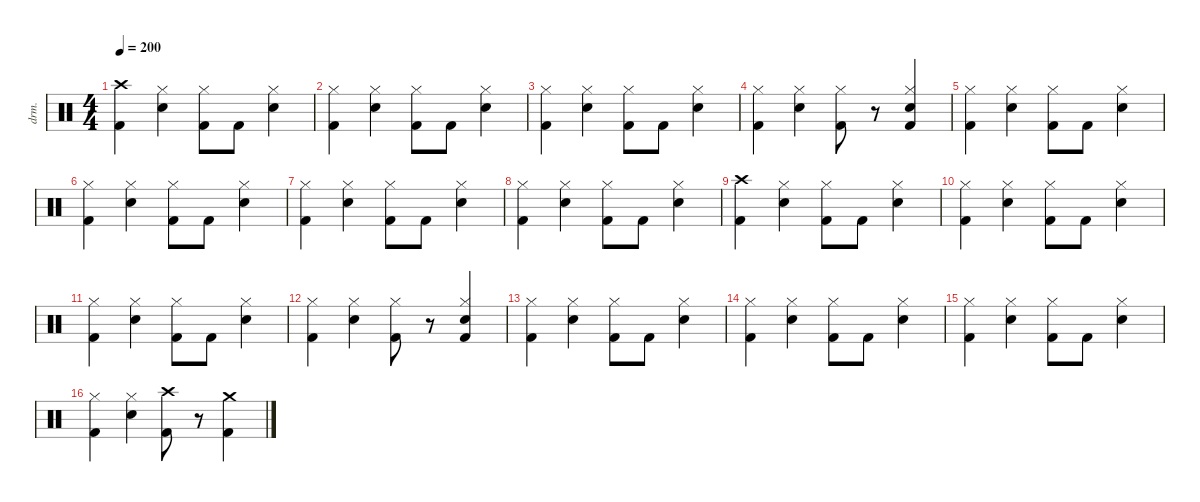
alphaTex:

\defaultSystemsLayout 4
\hideDynamics
\bracketExtendMode nobrackets
\track ("Drums" "drm.") {instrument percussion}
\staff {score}
\articulation defaults
\ts (4 4)
\tempo 200
\clef neutral
\ks c
("Crash high (hit)" "Kick (hit) 2").4{dy ff} ("Hi-Hat (closed)" "Snare (hit) 2").4{dy f} ("Hi-Hat (closed)" "Kick (hit) 2").8 "Kick (hit) 2".8{dy ff} ("Hi-Hat (closed)" "Snare (hit) 2").4{dy f} |
("Hi-Hat (closed)" "Kick (hit) 2").4 ("Hi-Hat (closed)" "Snare (hit) 2").4 ("Hi-Hat (closed)" "Kick (hit) 2").8 "Kick (hit) 2".8{dy ff} ("Hi-Hat (closed)" "Snare (hit) 2").4{dy f} |
("Hi-Hat (closed)" "Kick (hit) 2").4 ("Hi-Hat (closed)" "Snare (hit) 2").4 ("Hi-Hat (closed)" "Kick (hit) 2").8 "Kick (hit) 2".8{dy ff} ("Hi-Hat (closed)" "Snare (hit) 2").4{dy f} |
("Hi-Hat (closed)" "Kick (hit) 2").4 ("Hi-Hat (closed)" "Snare (hit) 2").4 ("Hi-Hat (closed)" "Kick (hit) 2").8 r.8 ("Hi-Hat (closed)" "Snare (hit) 2" "Kick (hit) 2").4 |
("Hi-Hat (closed)" "Kick (hit) 2").4 ("Hi-Hat (closed)" "Snare (hit) 2").4 ("Hi-Hat (closed)" "Kick (hit) 2").8 "Kick (hit) 2".8{dy ff} ("Hi-Hat (closed)" "Snare (hit) 2").4{dy f} |
("Hi-Hat (closed)" "Kick (hit) 2").4 ("Hi-Hat (closed)" "Snare (hit) 2").4 ("Hi-Hat (closed)" "Kick (hit) 2").8 "Kick (hit) 2".8{dy ff} ("Hi-Hat (closed)" "Snare (hit) 2").4{dy f} |
("Hi-Hat (closed)" "Kick (hit) 2").4 ("Hi-Hat (closed)" "Snare (hit) 2").4 ("Hi-Hat (closed)" "Kick (hit) 2").8 "Kick (hit) 2".8{dy ff} ("Hi-Hat (closed)" "Snare (hit) 2").4{dy f} |
("Hi-Hat (closed)" "Kick (hit) 2").4 ("Hi-Hat (closed)" "Snare (hit) 2").4 ("Hi-Hat (closed)" "Kick (hit) 2").8 "Kick (hit) 2".8{dy ff} ("Hi-Hat (closed)" "Snare (hit) 2").4{dy f} |
("Crash high (hit)" "Kick (hit) 2").4{dy ff} ("Hi-Hat (closed)" "Snare (hit) 2").4{dy f} ("Hi-Hat (closed)" "Kick (hit) 2").8 "Kick (hit) 2".8{dy ff} ("Hi-Hat (closed)" "Snare (hit) 2").4{dy f} |
("Hi-Hat (closed)" "Kick (hit) 2").4 ("Hi-Hat (closed)" "Snare (hit) 2").4 ("Hi-Hat (closed)" "Kick (hit) 2").8 "Kick (hit) 2".8{dy ff} ("Hi-Hat (closed)" "Snare (hit) 2").4{dy f} |
("Hi-Hat (closed)" "Kick (hit) 2").4 ("Hi-Hat (closed)" "Snare (hit) 2").4 ("Hi-Hat (closed)" "Kick (hit) 2").8 "Kick (hit) 2".8{dy ff} ("Hi-Hat (closed)" "Snare (hit) 2").4{dy f} |
("Hi-Hat (closed)" "Kick (hit) 2").4 ("Hi-Hat (closed)" "Snare (hit) 2").4 ("Hi-Hat (closed)" "Kick (hit) 2").8 r.8 ("Hi-Hat (closed)" "Snare (hit) 2" "Kick (hit) 2").4 |
("Hi-Hat (closed)" "Kick (hit) 2").4 ("Hi-Hat (closed)" "Snare (hit) 2").4 ("Hi-Hat (closed)" "Kick (hit) 2").8 "Kick (hit) 2".8{dy ff} ("Hi-Hat (closed)" "Snare (hit) 2").4{dy f} |
("Hi-Hat (closed)" "Kick (hit) 2").4 ("Hi-Hat (closed)" "Snare (hit) 2").4 ("Hi-Hat (closed)" "Kick (hit) 2").8 "Kick (hit) 2".8{dy ff} ("Hi-Hat (closed)" "Snare (hit) 2").4{dy f} |
("Hi-Hat (closed)" "Kick (hit) 2").4 ("Hi-Hat (closed)" "Snare (hit) 2").4 ("Hi-Hat (closed)" "Kick (hit) 2").8 "Kick (hit) 2".8{dy ff} ("Hi-Hat (closed)" "Snare (hit) 2").4{dy f} |
("Hi-Hat (closed)" "Kick (hit) 2").4 ("Hi-Hat (closed)" "Snare (hit) 2").4 ("Crash high (hit)" "Kick (hit) 2").8 r.8 ("Crash medium (hit)" "Kick (hit) 2").4
